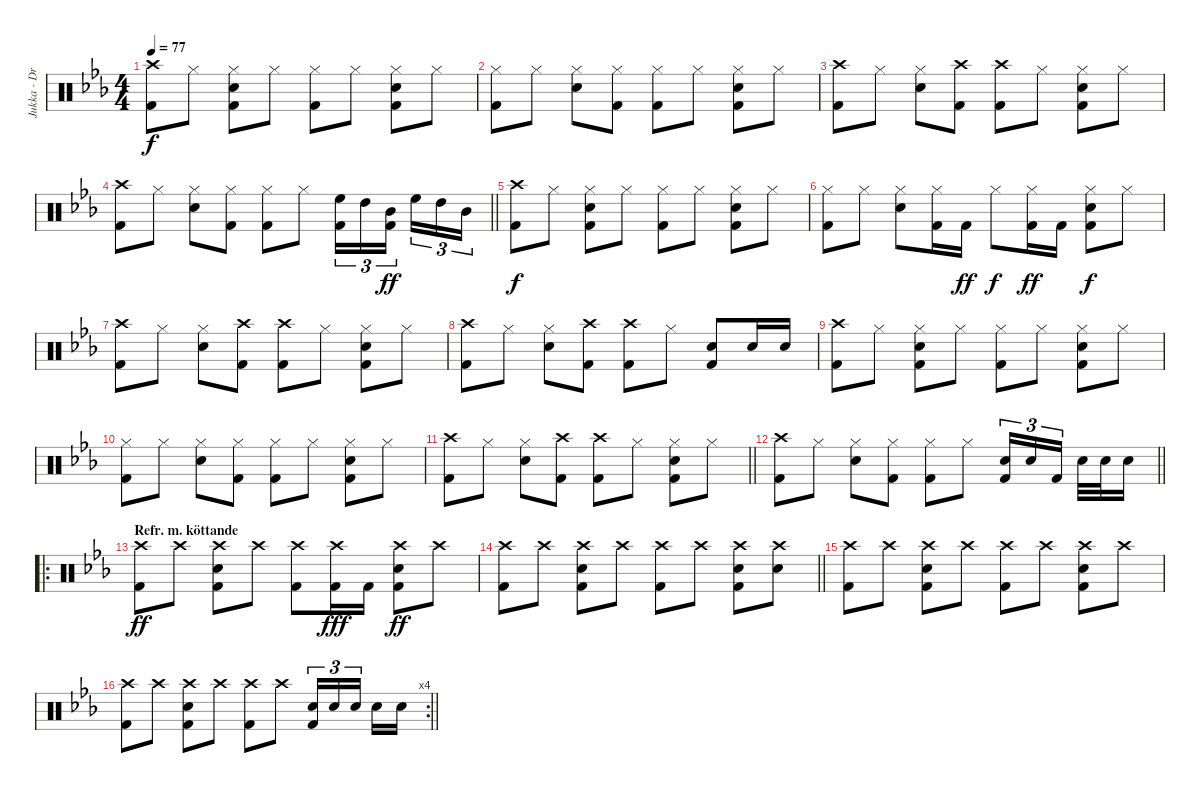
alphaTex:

\track ("Jukka - Drums" "Jukka - Dr") {instrument percussion}
\staff {score}
\articulation defaults
\ts (4 4)
\tempo 77
\clef neutral
\ks cminor
("Crash high (hit)" "Kick (hit) 2").8{dy f} "Hi-Hat (closed)".8 ("Snare (hit) 2" "Hi-Hat (closed)" "Kick (hit) 2").8 "Hi-Hat (closed)".8 ("Hi-Hat (closed)" "Kick (hit) 2").8 "Hi-Hat (closed)".8 ("Hi-Hat (closed)" "Snare (hit) 2" "Kick (hit) 2").8 "Hi-Hat (closed)".8 |
("Hi-Hat (closed)" "Kick (hit) 2").8 "Hi-Hat (closed)".8 ("Snare (hit) 2" "Hi-Hat (closed)").8 ("Hi-Hat (closed)" "Kick (hit) 2").8 ("Hi-Hat (closed)" "Kick (hit) 2").8 "Hi-Hat (closed)".8 ("Hi-Hat (closed)" "Snare (hit) 2" "Kick (hit) 2").8 "Hi-Hat (closed)".8 |
("Crash high (hit)" "Kick (hit) 2").8 "Hi-Hat (closed)".8 ("Snare (hit) 2" "Hi-Hat (closed)").8 ("Crash high (hit)" "Kick (hit) 2").8 ("Crash high (hit)" "Kick (hit) 2").8 "Hi-Hat (closed)".8 ("Hi-Hat (closed)" "Snare (hit) 2" "Kick (hit) 2").8 "Hi-Hat (closed)".8 |
\barLineRight lightlight
("Crash high (hit)" "Kick (hit) 2").8 "Hi-Hat (closed)".8 ("Snare (hit) 2" "Hi-Hat (closed)").8 ("Hi-Hat (closed)" "Kick (hit) 2").8 ("Hi-Hat (closed)" "Kick (hit) 2").8 "Hi-Hat (closed)".8 ("High Floor Tom (hit)" "Kick (hit) 2").16{tu (3 2)} "High Tom (hit)".16{tu (3 2)} ("Mid Tom (hit)" "Kick (hit) 2").16{tu (3 2) dy ff beam splitsecondary} "High Floor Tom (hit)".16{tu (3 2)} "High Tom (hit)".16{tu (3 2)} "Mid Tom (hit)".16{tu (3 2)} |
("Crash high (hit)" "Kick (hit) 2").8{dy f} "Hi-Hat (closed)".8 ("Snare (hit) 2" "Hi-Hat (closed)" "Kick (hit) 2").8 "Hi-Hat (closed)".8 ("Hi-Hat (closed)" "Kick (hit) 2").8 "Hi-Hat (closed)".8 ("Hi-Hat (closed)" "Snare (hit) 2" "Kick (hit) 2").8 "Hi-Hat (closed)".8 |
("Hi-Hat (closed)" "Kick (hit) 2").8 "Hi-Hat (closed)".8 ("Snare (hit) 2" "Hi-Hat (closed)").8 ("Hi-Hat (closed)" "Kick (hit) 2").16 "Kick (hit) 2".16{dy ff} "Hi-Hat (closed)".8{dy f} ("Hi-Hat (closed)" "Kick (hit) 2").16{dy ff} "Kick (hit) 2".16 ("Hi-Hat (closed)" "Snare (hit) 2" "Kick (hit) 2").8{dy f} "Hi-Hat (closed)".8 |
("Crash high (hit)" "Kick (hit) 2").8 "Hi-Hat (closed)".8 ("Snare (hit) 2" "Hi-Hat (closed)").8 ("Crash high (hit)" "Kick (hit) 2").8 ("Crash high (hit)" "Kick (hit) 2").8 "Hi-Hat (closed)".8 ("Hi-Hat (closed)" "Snare (hit) 2" "Kick (hit) 2").8 "Hi-Hat (closed)".8 |
("Crash high (hit)" "Kick (hit) 2").8 "Hi-Hat (closed)".8 ("Snare (hit) 2" "Hi-Hat (closed)").8 ("Crash high (hit)" "Kick (hit) 2").8 ("Crash high (hit)" "Kick (hit) 2").8 "Hi-Hat (closed)".8 ("Snare (hit) 2" "Kick (hit) 2").8 "Snare (hit) 2".16 "Snare (hit) 2".16 |
("Crash high (hit)" "Kick (hit) 2").8 "Hi-Hat (closed)".8 ("Snare (hit) 2" "Hi-Hat (closed)" "Kick (hit) 2").8 "Hi-Hat (closed)".8 ("Hi-Hat (closed)" "Kick (hit) 2").8 "Hi-Hat (closed)".8 ("Hi-Hat (closed)" "Snare (hit) 2" "Kick (hit) 2").8 "Hi-Hat (closed)".8 |
("Hi-Hat (closed)" "Kick (hit) 2").8 "Hi-Hat (closed)".8 ("Snare (hit) 2" "Hi-Hat (closed)").8 ("Hi-Hat (closed)" "Kick (hit) 2").8 ("Hi-Hat (closed)" "Kick (hit) 2").8 "Hi-Hat (closed)".8 ("Hi-Hat (closed)" "Snare (hit) 2" "Kick (hit) 2").8 "Hi-Hat (closed)".8 |
\barLineRight lightlight
("Crash high (hit)" "Kick (hit) 2").8 "Hi-Hat (closed)".8 ("Snare (hit) 2" "Hi-Hat (closed)").8 ("Crash high (hit)" "Kick (hit) 2").8 ("Crash high (hit)" "Kick (hit) 2").8 "Hi-Hat (closed)".8 ("Hi-Hat (closed)" "Snare (hit) 2" "Kick (hit) 2").8 "Hi-Hat (closed)".8 |
\barLineRight lightlight
("Crash high (hit)" "Kick (hit) 2").8 "Hi-Hat (closed)".8 ("Snare (hit) 2" "Hi-Hat (closed)").8 ("Hi-Hat (closed)" "Kick (hit) 2").8 ("Hi-Hat (closed)" "Kick (hit) 2").8 "Hi-Hat (closed)".8 ("Snare (hit) 2" "Kick (hit) 2").16{tu (3 2)} "Snare (hit) 2".16{tu (3 2)} "Kick (hit) 2".16{tu (3 2) beam splitsecondary} "Snare (hit) 2".32 "Snare (hit) 2".32 "Snare (hit) 2".16 |
\ro
\section ("" "Refr. m. köttande")
("Crash high (hit)" "Kick (hit) 2").8{dy ff} "Crash high (hit)".8 ("Snare (hit) 2" "Crash high (hit)" "Kick (hit) 2").8 "Crash high (hit)".8 ("Crash high (hit)" "Kick (hit) 2").8 ("Crash high (hit)" "Kick (hit) 2").16{dy fff} "Kick (hit) 2".16 ("Crash high (hit)" "Snare (hit) 2" "Kick (hit) 2").8{dy ff} "Crash high (hit)".8 |
\barLineRight lightlight
("Crash high (hit)" "Kick (hit) 2").8 "Crash high (hit)".8 ("Snare (hit) 2" "Crash high (hit)" "Kick (hit) 2").8 "Crash high (hit)".8 ("Crash high (hit)" "Kick (hit) 2").8 "Crash high (hit)".8 ("Crash high (hit)" "Snare (hit) 2" "Kick (hit) 2").8 ("Snare (hit) 2" "Crash high (hit)").8 |
("Crash high (hit)" "Kick (hit) 2").8 "Crash high (hit)".8 ("Snare (hit) 2" "Crash high (hit)" "Kick (hit) 2").8 "Crash high (hit)".8 ("Crash high (hit)" "Kick (hit) 2").8 "Crash high (hit)".8 ("Crash high (hit)" "Snare (hit) 2" "Kick (hit) 2").8 "Crash high (hit)".8 |
\rc 4
\barLineRight lightlight
("Crash high (hit)" "Kick (hit) 2").8 "Crash high (hit)".8 ("Snare (hit) 2" "Crash high (hit)" "Kick (hit) 2").8 "Crash high (hit)".8 ("Crash high (hit)" "Kick (hit) 2").8 "Crash high (hit)".8 ("Snare (hit) 2" "Kick (hit) 2").16{tu (3 2)} "Snare (hit) 2".16{tu (3 2)} "Snare (hit) 2".16{tu (3 2) beam splitsecondary} "Snare (hit) 2".16 "Snare (hit) 2".16
